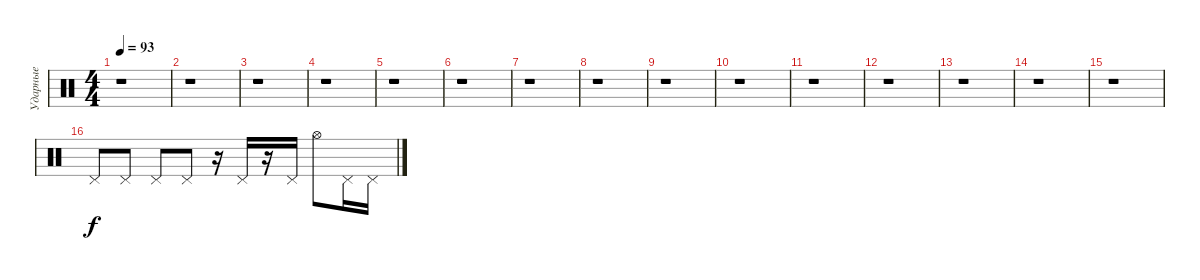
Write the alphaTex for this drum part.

\track ("Ударные" "Ударные") {instrument percussion}
\staff {score}
\articulation defaults
\ts (4 4)
\tempo 93
\clef neutral
\ks c
r.1{dy f} |
r.1 |
r.1 |
r.1 |
r.1 |
r.1 |
r.1 |
r.1 |
r.1 |
r.1 |
r.1 |
r.1 |
r.1 |
r.1 |
r.1 |
"Pedal Hi-Hat (hit)".8 "Pedal Hi-Hat (hit)".8 "Pedal Hi-Hat (hit)".8 "Pedal Hi-Hat (hit)".8 r.16 "Pedal Hi-Hat (hit)".16 r.16 "Pedal Hi-Hat (hit)".16 "Hi-Hat (open)".8 "Pedal Hi-Hat (hit)".16 "Pedal Hi-Hat (hit)".16
